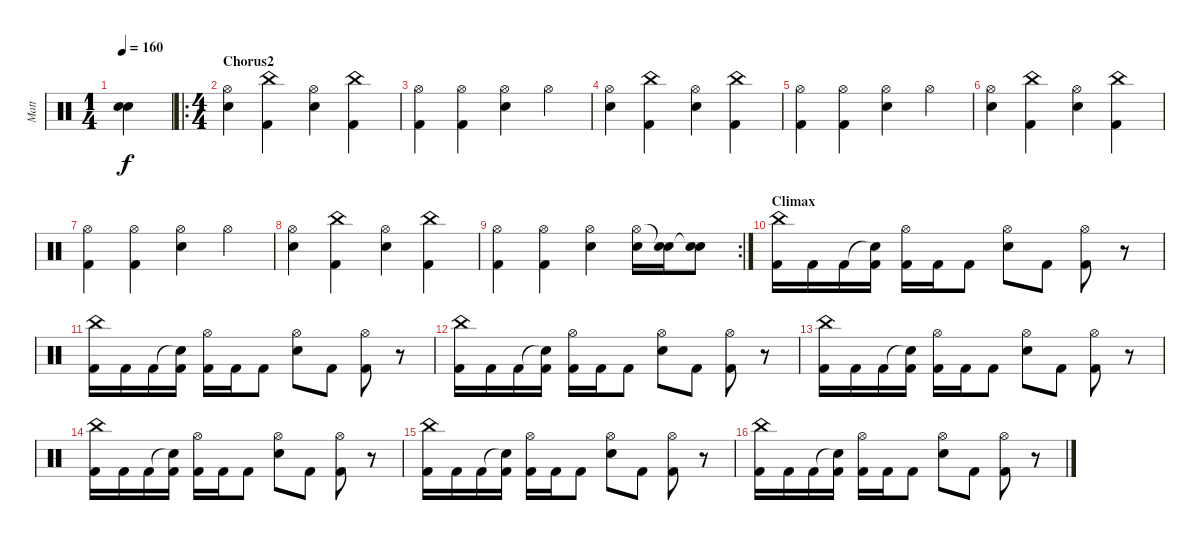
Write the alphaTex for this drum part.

\track ("Matt" "Matt") {instrument percussion}
\staff {score}
\articulation defaults
\ts (1 4)
\tempo 160
\clef neutral
\ks c
("Snare (hit)"{t} "Snare (hit)"{t}).4{dy f} |
\ro
\ts (4 4)
\section ("" "Chorus2")
("Electric Snare (hit)" "Hi-Hat (open)").4 ("China (hit)" "Kick (hit) 2").4 ("Electric Snare (hit)" "Hi-Hat (open)").4 ("China (hit)" "Kick (hit) 2").4 |
("Kick (hit) 2" "Hi-Hat (open)").4 ("Kick (hit) 2" "Hi-Hat (open)").4 ("Electric Snare (hit)" "Hi-Hat (open)").4 "Hi-Hat (open)".4 |
("Electric Snare (hit)" "Hi-Hat (open)").4 ("China (hit)" "Kick (hit) 2").4 ("Electric Snare (hit)" "Hi-Hat (open)").4 ("China (hit)" "Kick (hit) 2").4 |
("Kick (hit) 2" "Hi-Hat (open)").4 ("Kick (hit) 2" "Hi-Hat (open)").4 ("Electric Snare (hit)" "Hi-Hat (open)").4 "Hi-Hat (open)".4 |
("Electric Snare (hit)" "Hi-Hat (open)").4 ("China (hit)" "Kick (hit) 2").4 ("Electric Snare (hit)" "Hi-Hat (open)").4 ("China (hit)" "Kick (hit) 2").4 |
("Kick (hit) 2" "Hi-Hat (open)").4 ("Kick (hit) 2" "Hi-Hat (open)").4 ("Electric Snare (hit)" "Hi-Hat (open)").4 "Hi-Hat (open)".4 |
("Electric Snare (hit)" "Hi-Hat (open)").4 ("China (hit)" "Kick (hit) 2").4 ("Electric Snare (hit)" "Hi-Hat (open)").4 ("China (hit)" "Kick (hit) 2").4 |
\rc 2
("Kick (hit) 2" "Hi-Hat (open)").4 ("Kick (hit) 2" "Hi-Hat (open)").4 ("Electric Snare (hit)" "Hi-Hat (open)").4 ("Hi-Hat (open)" "Electric Snare (hit)").16 ("Snare (hit)"{t} "Electric Snare (hit)").16 ("Snare (hit)"{t} "Electric Snare (hit)").8 |
\section ("" "Climax")
("China (hit)" "Kick (hit) 2").16 "Kick (hit) 2".16 "Kick (hit) 2".16 ("Snare (hit)"{t} "Kick (hit) 2").16 ("Hi-Hat (open)" "Kick (hit) 2").16 "Kick (hit) 2".16 "Kick (hit) 2".8 ("Hi-Hat (open)" "Electric Snare (hit)").8 "Kick (hit) 2".8 ("Hi-Hat (open)" "Kick (hit) 2").8 r.8 |
("China (hit)" "Kick (hit) 2").16 "Kick (hit) 2".16 "Kick (hit) 2".16 ("Snare (hit)"{t} "Kick (hit) 2").16 ("Hi-Hat (open)" "Kick (hit) 2").16 "Kick (hit) 2".16 "Kick (hit) 2".8 ("Hi-Hat (open)" "Electric Snare (hit)").8 "Kick (hit) 2".8 ("Hi-Hat (open)" "Kick (hit) 2").8 r.8 |
("China (hit)" "Kick (hit) 2").16 "Kick (hit) 2".16 "Kick (hit) 2".16 ("Snare (hit)"{t} "Kick (hit) 2").16 ("Hi-Hat (open)" "Kick (hit) 2").16 "Kick (hit) 2".16 "Kick (hit) 2".8 ("Hi-Hat (open)" "Electric Snare (hit)").8 "Kick (hit) 2".8 ("Hi-Hat (open)" "Kick (hit) 2").8 r.8 |
("China (hit)" "Kick (hit) 2").16 "Kick (hit) 2".16 "Kick (hit) 2".16 ("Snare (hit)"{t} "Kick (hit) 2").16 ("Hi-Hat (open)" "Kick (hit) 2").16 "Kick (hit) 2".16 "Kick (hit) 2".8 ("Hi-Hat (open)" "Electric Snare (hit)").8 "Kick (hit) 2".8 ("Hi-Hat (open)" "Kick (hit) 2").8 r.8 |
("China (hit)" "Kick (hit) 2").16 "Kick (hit) 2".16 "Kick (hit) 2".16 ("Snare (hit)"{t} "Kick (hit) 2").16 ("Hi-Hat (open)" "Kick (hit) 2").16 "Kick (hit) 2".16 "Kick (hit) 2".8 ("Hi-Hat (open)" "Electric Snare (hit)").8 "Kick (hit) 2".8 ("Hi-Hat (open)" "Kick (hit) 2").8 r.8 |
("China (hit)" "Kick (hit) 2").16 "Kick (hit) 2".16 "Kick (hit) 2".16 ("Snare (hit)"{t} "Kick (hit) 2").16 ("Hi-Hat (open)" "Kick (hit) 2").16 "Kick (hit) 2".16 "Kick (hit) 2".8 ("Hi-Hat (open)" "Electric Snare (hit)").8 "Kick (hit) 2".8 ("Hi-Hat (open)" "Kick (hit) 2").8 r.8 |
("China (hit)" "Kick (hit) 2").16 "Kick (hit) 2".16 "Kick (hit) 2".16 ("Snare (hit)"{t} "Kick (hit) 2").16 ("Hi-Hat (open)" "Kick (hit) 2").16 "Kick (hit) 2".16 "Kick (hit) 2".8 ("Hi-Hat (open)" "Electric Snare (hit)").8 "Kick (hit) 2".8 ("Hi-Hat (open)" "Kick (hit) 2").8 r.8
